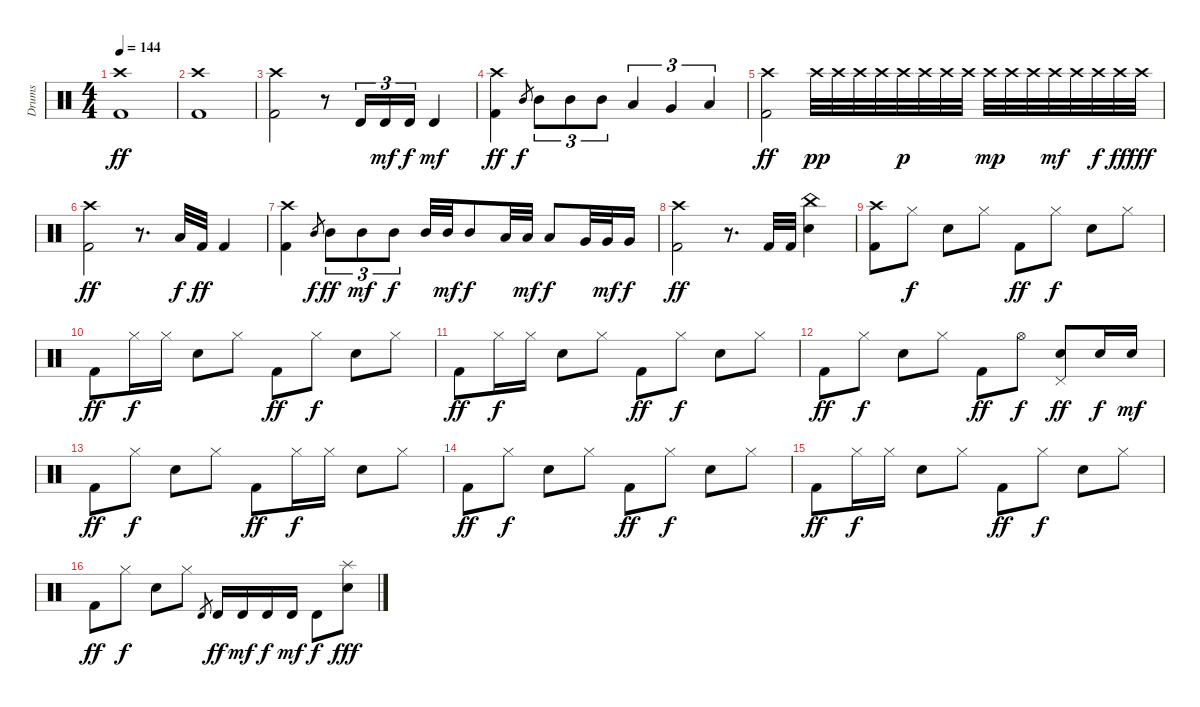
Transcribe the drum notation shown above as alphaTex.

\track ("Drums" "Drums") {instrument percussion}
\staff {score}
\articulation defaults
\ts (4 4)
\tempo 144
\clef neutral
\ks c
("Crash high (hit)" "Kick (hit) 2").1{dy ff} |
("Crash high (hit)" "Kick (hit) 2").1 |
("Crash high (hit)" "Kick (hit) 2").2 r.8 "Timbale high (hit)".16{tu (3 2)} "Timbale high (hit)".16{tu (3 2) dy mf} "Timbale high (hit)".16{tu (3 2) dy f} "Timbale high (hit)".4{dy mf} |
("Crash high (hit)" "Kick (hit) 2").4{dy ff} "Mid Tom (hit)".8{gr dy f} "Mid Tom (hit)".8{tu (3 2)} "Mid Tom (hit)".8{tu (3 2)} "Mid Tom (hit)".8{tu (3 2)} "Low Tom (hit)".4{tu (3 2)} "Very Low Tom (hit)".4{tu (3 2)} "Low Floor Tom (hit)".4{tu (3 2)} |
("Crash high (hit)" "Kick (hit) 2").2{dy ff} "Crash high (hit)".32{dy pp} "Crash high (hit)".32 "Crash high (hit)".32 "Crash high (hit)".32 "Crash high (hit)".32{dy p} "Crash high (hit)".32 "Crash high (hit)".32 "Crash high (hit)".32 "Crash high (hit)".32{dy mp} "Crash high (hit)".32 "Crash high (hit)".32 "Crash high (hit)".32{dy mf} "Crash high (hit)".32 "Crash high (hit)".32{dy f} "Crash high (hit)".32{dy ff} "Crash high (hit)".32{dy fff} |
("Crash high (hit)" "Kick (hit) 2").2{dy ff} r.8{d} "Low Floor Tom (hit)".32{dy f} "Kick (hit) 2".32{dy ff} "Kick (hit) 2".4 |
("Crash high (hit)" "Kick (hit) 2").4 "Mid Tom (hit)".8{gr dy f} "Mid Tom (hit)".8{tu (3 2) dy ff} "Mid Tom (hit)".8{tu (3 2) dy mf} "Mid Tom (hit)".8{tu (3 2) dy f} "Mid Tom (hit)".32 "Mid Tom (hit)".32{dy mf} "Mid Tom (hit)".8{dy f} "Low Tom (hit)".32 "Low Tom (hit)".32{dy mf} "Low Tom (hit)".8{dy f} "Very Low Tom (hit)".32 "Very Low Tom (hit)".32{dy mf} "Very Low Tom (hit)".16{dy f} |
("Crash high (hit)" "Kick (hit) 2").2{dy ff} r.8{d} "Kick (hit) 2".32 "Kick (hit) 2".32 ("China (hit)" "Snare (hit) 2").4 |
("Crash high (hit)" "Kick (hit) 2").8 "Hi-Hat (closed)".8{dy f} "Snare (hit) 2".8 "Hi-Hat (closed)".8 "Kick (hit) 2".8{dy ff} "Hi-Hat (closed)".8{dy f} "Snare (hit) 2".8 "Hi-Hat (closed)".8 |
"Kick (hit) 2".8{dy ff} "Hi-Hat (closed)".16{dy f} "Hi-Hat (closed)".16 "Snare (hit) 2".8 "Hi-Hat (closed)".8 "Kick (hit) 2".8{dy ff} "Hi-Hat (closed)".8{dy f} "Snare (hit) 2".8 "Hi-Hat (closed)".8 |
"Kick (hit) 2".8{dy ff} "Hi-Hat (closed)".16{dy f} "Hi-Hat (closed)".16 "Snare (hit) 2".8 "Hi-Hat (closed)".8 "Kick (hit) 2".8{dy ff} "Hi-Hat (closed)".8{dy f} "Snare (hit) 2".8 "Hi-Hat (closed)".8 |
"Kick (hit) 2".8{dy ff} "Hi-Hat (closed)".8{dy f} "Snare (hit) 2".8 "Hi-Hat (closed)".8 "Kick (hit) 2".8{dy ff} "Hi-Hat (open)".8{dy f} ("Pedal Hi-Hat (hit)" "Snare (hit) 2").8{dy ff} "Snare (hit) 2".16{dy f} "Snare (hit) 2".16{dy mf} |
"Kick (hit) 2".8{dy ff} "Hi-Hat (closed)".8{dy f} "Snare (hit) 2".8 "Hi-Hat (closed)".8 "Kick (hit) 2".8{dy ff} "Hi-Hat (closed)".16{dy f} "Hi-Hat (closed)".16 "Snare (hit) 2".8 "Hi-Hat (closed)".8 |
"Kick (hit) 2".8{dy ff} "Hi-Hat (closed)".8{dy f} "Snare (hit) 2".8 "Hi-Hat (closed)".8 "Kick (hit) 2".8{dy ff} "Hi-Hat (closed)".8{dy f} "Snare (hit) 2".8 "Hi-Hat (closed)".8 |
"Kick (hit) 2".8{dy ff} "Hi-Hat (closed)".16{dy f} "Hi-Hat (closed)".16 "Snare (hit) 2".8 "Hi-Hat (closed)".8 "Kick (hit) 2".8{dy ff} "Hi-Hat (closed)".8{dy f} "Snare (hit) 2".8 "Hi-Hat (closed)".8 |
"Kick (hit) 2".8{dy ff} "Hi-Hat (closed)".8{dy f} "Snare (hit) 2".8 "Hi-Hat (closed)".8 "Timbale high (hit)".8{gr} "Timbale high (hit)".16{dy ff} "Timbale high (hit)".16{dy mf} "Timbale high (hit)".16{dy f} "Timbale high (hit)".16{dy mf} "Timbale high (hit)".8{dy f} ("Splash (hit)" "Snare (hit) 2").8{dy fff}
